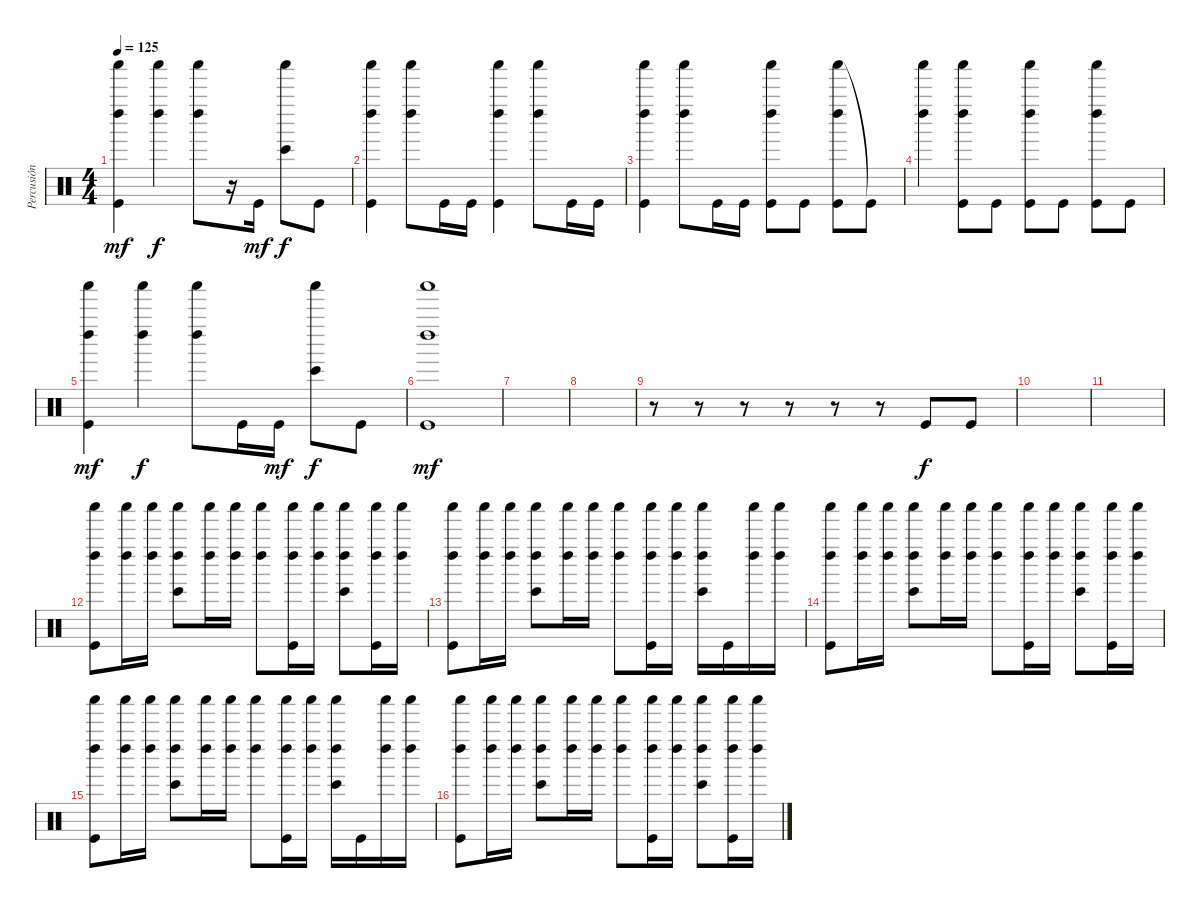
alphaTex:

\track ("Percusión" "Percusión") {instrument percussion}
\staff {score}
\articulation defaults
\ts (4 4)
\tempo 125
\clef neutral
\ks c
("Shaker (hit)" "Left Maraca (hit)" "Kick (hit)").4{dy mf} ("Shaker (hit)" "Left Maraca (hit)").4{dy f} ("Shaker (hit)" "Left Maraca (hit)").8 r.16 "Kick (hit)".16{dy mf} ("Shaker (hit)" "Bongo High (hit)").8{dy f} "Kick (hit)".8 |
("Shaker (hit)" "Left Maraca (hit)" "Kick (hit)").4 ("Shaker (hit)" "Left Maraca (hit)").8 "Kick (hit)".16 "Kick (hit)".16 ("Shaker (hit)" "Left Maraca (hit)" "Kick (hit)").4 ("Shaker (hit)" "Left Maraca (hit)").8 "Kick (hit)".16 "Kick (hit)".16 |
("Shaker (hit)" "Left Maraca (hit)" "Kick (hit)").4 ("Shaker (hit)" "Left Maraca (hit)").8 "Kick (hit)".16 "Kick (hit)".16 ("Shaker (hit)" "Left Maraca (hit)" "Kick (hit)").8 "Kick (hit)".8 ("Shaker (hit)" "Left Maraca (hit)" "Kick (hit)").8 "Kick (hit)"{t}.8 |
("Shaker (hit)" "Left Maraca (hit)").4 ("Shaker (hit)" "Left Maraca (hit)" "Kick (hit)").8 "Kick (hit)".8 ("Shaker (hit)" "Left Maraca (hit)" "Kick (hit)").8 "Kick (hit)".8 ("Shaker (hit)" "Left Maraca (hit)" "Kick (hit)").8 "Kick (hit)".8 |
("Shaker (hit)" "Left Maraca (hit)" "Kick (hit)").4{dy mf} ("Shaker (hit)" "Left Maraca (hit)").4{dy f} ("Shaker (hit)" "Left Maraca (hit)").8 "Kick (hit)".16 "Kick (hit)".16{dy mf} ("Shaker (hit)" "Bongo High (hit)").8{dy f} "Kick (hit)".8 |
("Shaker (hit)" "Left Maraca (hit)" "Kick (hit)").1{dy mf} |
|
|
r.8 r.8 r.8 r.8 r.8 r.8 "Kick (hit)".8{dy f} "Kick (hit)".8 |
|
|
("Shaker (hit)" "Left Maraca (hit)" "Kick (hit)").8 ("Shaker (hit)" "Left Maraca (hit)").16 ("Shaker (hit)" "Left Maraca (hit)").16 ("Shaker (hit)" "Left Maraca (hit)" "Bongo High (hit)").8 ("Shaker (hit)" "Left Maraca (hit)").16 ("Shaker (hit)" "Left Maraca (hit)").16 ("Shaker (hit)" "Left Maraca (hit)").8 ("Shaker (hit)" "Left Maraca (hit)" "Kick (hit)").16 ("Shaker (hit)" "Left Maraca (hit)").16 ("Shaker (hit)" "Left Maraca (hit)" "Bongo High (hit)").8 ("Shaker (hit)" "Left Maraca (hit)" "Kick (hit)").16 ("Shaker (hit)" "Left Maraca (hit)").16 |
("Shaker (hit)" "Left Maraca (hit)" "Kick (hit)").8 ("Shaker (hit)" "Left Maraca (hit)").16 ("Shaker (hit)" "Left Maraca (hit)").16 ("Shaker (hit)" "Left Maraca (hit)" "Bongo High (hit)").8 ("Shaker (hit)" "Left Maraca (hit)").16 ("Shaker (hit)" "Left Maraca (hit)").16 ("Shaker (hit)" "Left Maraca (hit)").8 ("Shaker (hit)" "Left Maraca (hit)" "Kick (hit)").16 ("Shaker (hit)" "Left Maraca (hit)").16 ("Shaker (hit)" "Left Maraca (hit)" "Bongo High (hit)").16 "Kick (hit)".16 ("Shaker (hit)" "Left Maraca (hit)").16 ("Shaker (hit)" "Left Maraca (hit)").16 |
("Shaker (hit)" "Left Maraca (hit)" "Kick (hit)").8 ("Shaker (hit)" "Left Maraca (hit)").16 ("Shaker (hit)" "Left Maraca (hit)").16 ("Shaker (hit)" "Left Maraca (hit)" "Bongo High (hit)").8 ("Shaker (hit)" "Left Maraca (hit)").16 ("Shaker (hit)" "Left Maraca (hit)").16 ("Shaker (hit)" "Left Maraca (hit)").8 ("Shaker (hit)" "Left Maraca (hit)" "Kick (hit)").16 ("Shaker (hit)" "Left Maraca (hit)").16 ("Shaker (hit)" "Left Maraca (hit)" "Bongo High (hit)").8 ("Shaker (hit)" "Left Maraca (hit)" "Kick (hit)").16 ("Shaker (hit)" "Left Maraca (hit)").16 |
("Shaker (hit)" "Left Maraca (hit)" "Kick (hit)").8 ("Shaker (hit)" "Left Maraca (hit)").16 ("Shaker (hit)" "Left Maraca (hit)").16 ("Shaker (hit)" "Left Maraca (hit)" "Bongo High (hit)").8 ("Shaker (hit)" "Left Maraca (hit)").16 ("Shaker (hit)" "Left Maraca (hit)").16 ("Shaker (hit)" "Left Maraca (hit)").8 ("Shaker (hit)" "Left Maraca (hit)" "Kick (hit)").16 ("Shaker (hit)" "Left Maraca (hit)").16 ("Shaker (hit)" "Left Maraca (hit)" "Bongo High (hit)").16 "Kick (hit)".16 ("Shaker (hit)" "Left Maraca (hit)").16 ("Shaker (hit)" "Left Maraca (hit)").16 |
("Shaker (hit)" "Left Maraca (hit)" "Kick (hit)").8 ("Shaker (hit)" "Left Maraca (hit)").16 ("Shaker (hit)" "Left Maraca (hit)").16 ("Shaker (hit)" "Left Maraca (hit)" "Bongo High (hit)").8 ("Shaker (hit)" "Left Maraca (hit)").16 ("Shaker (hit)" "Left Maraca (hit)").16 ("Shaker (hit)" "Left Maraca (hit)").8 ("Shaker (hit)" "Left Maraca (hit)" "Kick (hit)").16 ("Shaker (hit)" "Left Maraca (hit)").16 ("Shaker (hit)" "Left Maraca (hit)" "Bongo High (hit)").8 ("Shaker (hit)" "Left Maraca (hit)" "Kick (hit)").16 ("Shaker (hit)" "Left Maraca (hit)").16
